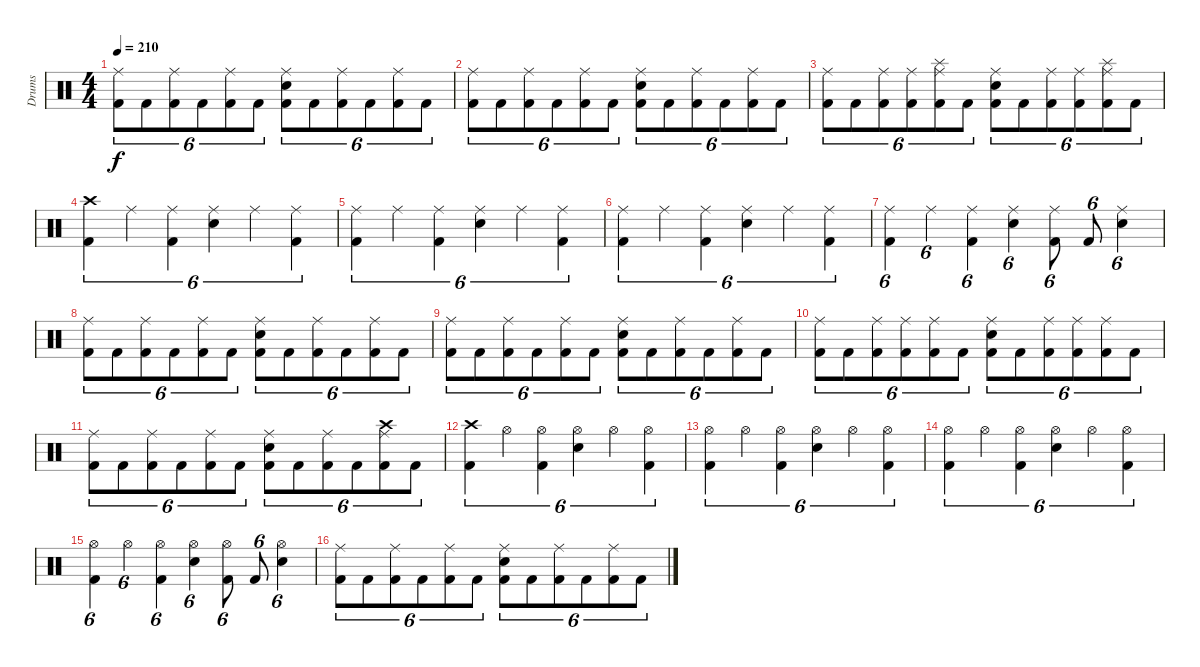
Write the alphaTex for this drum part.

\track ("Drums" "Drums") {instrument percussion}
\staff {score}
\articulation defaults
\ts (4 4)
\tempo 210
\clef neutral
\ks c
("Kick (hit) 2" "Ride (middle)").8{tu (6 4) dy f} "Kick (hit) 2".8{tu (6 4)} ("Kick (hit) 2" "Ride (middle)").8{tu (6 4)} "Kick (hit) 2".8{tu (6 4)} ("Kick (hit) 2" "Ride (middle)").8{tu (6 4)} "Kick (hit) 2".8{tu (6 4)} ("Kick (hit) 2" "Snare (hit) 2" "Ride (middle)").8{tu (6 4)} "Kick (hit) 2".8{tu (6 4)} ("Kick (hit) 2" "Ride (middle)").8{tu (6 4)} "Kick (hit) 2".8{tu (6 4)} ("Kick (hit) 2" "Ride (middle)").8{tu (6 4)} "Kick (hit) 2".8{tu (6 4)} |
("Kick (hit) 2" "Ride (middle)").8{tu (6 4)} "Kick (hit) 2".8{tu (6 4)} ("Kick (hit) 2" "Ride (middle)").8{tu (6 4)} "Kick (hit) 2".8{tu (6 4)} ("Kick (hit) 2" "Ride (middle)").8{tu (6 4)} "Kick (hit) 2".8{tu (6 4)} ("Kick (hit) 2" "Snare (hit) 2" "Ride (middle)").8{tu (6 4)} "Kick (hit) 2".8{tu (6 4)} ("Kick (hit) 2" "Ride (middle)").8{tu (6 4)} "Kick (hit) 2".8{tu (6 4)} ("Kick (hit) 2" "Ride (middle)").8{tu (6 4)} "Kick (hit) 2".8{tu (6 4)} |
("Kick (hit) 2" "Ride (middle)").8{tu (6 4)} "Kick (hit) 2".8{tu (6 4)} ("Kick (hit) 2" "Ride (middle)").8{tu (6 4)} ("Kick (hit) 2" "Ride (middle)").8{tu (6 4)} ("Kick (hit) 2" "Ride (middle)" "Splash (hit)").8{tu (6 4)} "Kick (hit) 2".8{tu (6 4)} ("Kick (hit) 2" "Snare (hit) 2" "Ride (middle)").8{tu (6 4)} "Kick (hit) 2".8{tu (6 4)} ("Kick (hit) 2" "Ride (middle)").8{tu (6 4)} ("Kick (hit) 2" "Ride (middle)").8{tu (6 4)} ("Kick (hit) 2" "Ride (middle)" "Splash (hit)").8{tu (6 4)} "Kick (hit) 2".8{tu (6 4)} |
("Kick (hit) 2" "Crash high (hit)").4{tu (6 4)} "Ride (middle)".4{tu (6 4)} ("Kick (hit) 2" "Ride (middle)").4{tu (6 4)} ("Snare (hit) 2" "Ride (middle)").4{tu (6 4)} "Ride (middle)".4{tu (6 4)} ("Kick (hit) 2" "Ride (middle)").4{tu (6 4)} |
("Kick (hit) 2" "Ride (middle)").4{tu (6 4)} "Ride (middle)".4{tu (6 4)} ("Kick (hit) 2" "Ride (middle)").4{tu (6 4)} ("Snare (hit) 2" "Ride (middle)").4{tu (6 4)} "Ride (middle)".4{tu (6 4)} ("Kick (hit) 2" "Ride (middle)").4{tu (6 4)} |
("Kick (hit) 2" "Ride (middle)").4{tu (6 4)} "Ride (middle)".4{tu (6 4)} ("Kick (hit) 2" "Ride (middle)").4{tu (6 4)} ("Snare (hit) 2" "Ride (middle)").4{tu (6 4)} "Ride (middle)".4{tu (6 4)} ("Kick (hit) 2" "Ride (middle)").4{tu (6 4)} |
("Kick (hit) 2" "Ride (middle)").4{tu (6 4)} "Ride (middle)".4{tu (6 4)} ("Kick (hit) 2" "Ride (middle)").4{tu (6 4)} ("Snare (hit) 2" "Ride (middle)").4{tu (6 4)} ("Kick (hit) 2" "Ride (middle)").8{tu (6 4)} "Kick (hit) 2".8{tu (6 4)} ("Snare (hit) 2" "Ride (middle)").4{tu (6 4)} |
("Kick (hit) 2" "Ride (middle)").8{tu (6 4)} "Kick (hit) 2".8{tu (6 4)} ("Kick (hit) 2" "Ride (middle)").8{tu (6 4)} "Kick (hit) 2".8{tu (6 4)} ("Kick (hit) 2" "Ride (middle)").8{tu (6 4)} "Kick (hit) 2".8{tu (6 4)} ("Kick (hit) 2" "Snare (hit) 2" "Ride (middle)").8{tu (6 4)} "Kick (hit) 2".8{tu (6 4)} ("Kick (hit) 2" "Ride (middle)").8{tu (6 4)} "Kick (hit) 2".8{tu (6 4)} ("Kick (hit) 2" "Ride (middle)").8{tu (6 4)} "Kick (hit) 2".8{tu (6 4)} |
("Kick (hit) 2" "Ride (middle)").8{tu (6 4)} "Kick (hit) 2".8{tu (6 4)} ("Kick (hit) 2" "Ride (middle)").8{tu (6 4)} "Kick (hit) 2".8{tu (6 4)} ("Kick (hit) 2" "Ride (middle)").8{tu (6 4)} "Kick (hit) 2".8{tu (6 4)} ("Kick (hit) 2" "Snare (hit) 2" "Ride (middle)").8{tu (6 4)} "Kick (hit) 2".8{tu (6 4)} ("Kick (hit) 2" "Ride (middle)").8{tu (6 4)} "Kick (hit) 2".8{tu (6 4)} ("Kick (hit) 2" "Ride (middle)").8{tu (6 4)} "Kick (hit) 2".8{tu (6 4)} |
("Kick (hit) 2" "Ride (middle)").8{tu (6 4)} "Kick (hit) 2".8{tu (6 4)} ("Kick (hit) 2" "Ride (middle)").8{tu (6 4)} ("Kick (hit) 2" "Ride (middle)").8{tu (6 4)} ("Kick (hit) 2" "Ride (middle)").8{tu (6 4)} "Kick (hit) 2".8{tu (6 4)} ("Kick (hit) 2" "Snare (hit) 2" "Ride (middle)").8{tu (6 4)} "Kick (hit) 2".8{tu (6 4)} ("Kick (hit) 2" "Ride (middle)").8{tu (6 4)} ("Kick (hit) 2" "Ride (middle)").8{tu (6 4)} ("Kick (hit) 2" "Ride (middle)").8{tu (6 4)} "Kick (hit) 2".8{tu (6 4)} |
("Kick (hit) 2" "Ride (middle)").8{tu (6 4)} "Kick (hit) 2".8{tu (6 4)} ("Kick (hit) 2" "Ride (middle)").8{tu (6 4)} "Kick (hit) 2".8{tu (6 4)} ("Kick (hit) 2" "Ride (middle)").8{tu (6 4)} "Kick (hit) 2".8{tu (6 4)} ("Kick (hit) 2" "Snare (hit) 2" "Ride (middle)").8{tu (6 4)} "Kick (hit) 2".8{tu (6 4)} ("Kick (hit) 2" "Ride (middle)").8{tu (6 4)} "Kick (hit) 2".8{tu (6 4)} ("Kick (hit) 2" "Ride (middle)" "Crash high (hit)").8{tu (6 4)} "Kick (hit) 2".8{tu (6 4)} |
("Kick (hit) 2" "Crash high (hit)").4{tu (6 4)} "Hi-Hat (open)".4{tu (6 4)} ("Kick (hit) 2" "Hi-Hat (open)").4{tu (6 4)} ("Snare (hit) 2" "Hi-Hat (open)").4{tu (6 4)} "Hi-Hat (open)".4{tu (6 4)} ("Kick (hit) 2" "Hi-Hat (open)").4{tu (6 4)} |
("Kick (hit) 2" "Hi-Hat (open)").4{tu (6 4)} "Hi-Hat (open)".4{tu (6 4)} ("Kick (hit) 2" "Hi-Hat (open)").4{tu (6 4)} ("Snare (hit) 2" "Hi-Hat (open)").4{tu (6 4)} "Hi-Hat (open)".4{tu (6 4)} ("Kick (hit) 2" "Hi-Hat (open)").4{tu (6 4)} |
("Kick (hit) 2" "Hi-Hat (open)").4{tu (6 4)} "Hi-Hat (open)".4{tu (6 4)} ("Kick (hit) 2" "Hi-Hat (open)").4{tu (6 4)} ("Snare (hit) 2" "Hi-Hat (open)").4{tu (6 4)} "Hi-Hat (open)".4{tu (6 4)} ("Kick (hit) 2" "Hi-Hat (open)").4{tu (6 4)} |
("Kick (hit) 2" "Hi-Hat (open)").4{tu (6 4)} "Hi-Hat (open)".4{tu (6 4)} ("Kick (hit) 2" "Hi-Hat (open)").4{tu (6 4)} ("Snare (hit) 2" "Hi-Hat (open)").4{tu (6 4)} ("Kick (hit) 2" "Hi-Hat (open)").8{tu (6 4)} "Kick (hit) 2".8{tu (6 4)} ("Snare (hit) 2" "Hi-Hat (open)").4{tu (6 4)} |
("Kick (hit) 2" "Ride (middle)").8{tu (6 4)} "Kick (hit) 2".8{tu (6 4)} ("Kick (hit) 2" "Ride (middle)").8{tu (6 4)} "Kick (hit) 2".8{tu (6 4)} ("Kick (hit) 2" "Ride (middle)").8{tu (6 4)} "Kick (hit) 2".8{tu (6 4)} ("Kick (hit) 2" "Snare (hit) 2" "Ride (middle)").8{tu (6 4)} "Kick (hit) 2".8{tu (6 4)} ("Kick (hit) 2" "Ride (middle)").8{tu (6 4)} "Kick (hit) 2".8{tu (6 4)} ("Kick (hit) 2" "Ride (middle)").8{tu (6 4)} "Kick (hit) 2".8{tu (6 4)}
